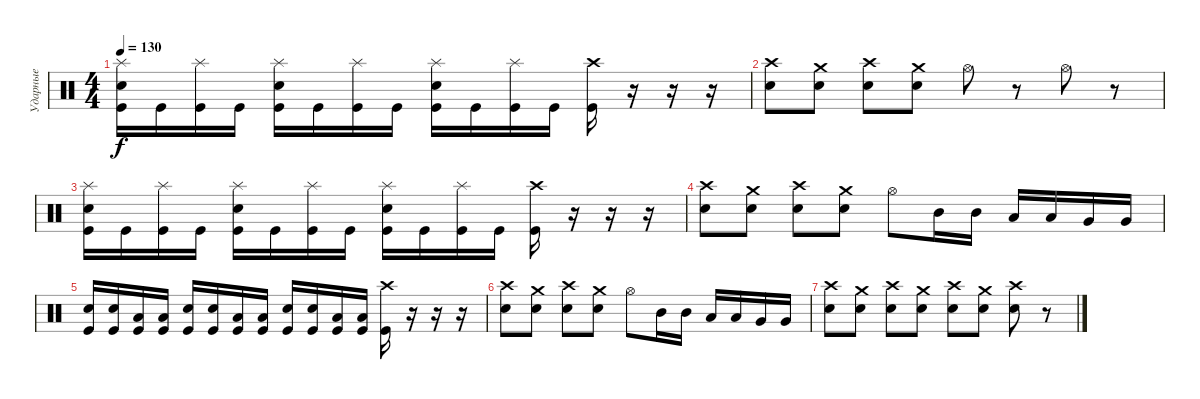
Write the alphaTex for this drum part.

\track ("Ударные" "Ударные") {instrument percussion}
\staff {score}
\articulation defaults
\ts (4 4)
\tempo 130
\clef neutral
\ks c
("Splash (hit)" "Electric Snare (hit)" "Kick (hit)").16{dy f} "Kick (hit)".16 ("Splash (hit)" "Kick (hit)").16 "Kick (hit)".16 ("Splash (hit)" "Electric Snare (hit)" "Kick (hit)").16 "Kick (hit)".16 ("Splash (hit)" "Kick (hit)").16 "Kick (hit)".16 ("Splash (hit)" "Electric Snare (hit)" "Kick (hit)").16 "Kick (hit)".16 ("Splash (hit)" "Kick (hit)").16 "Kick (hit)".16 ("Crash high (hit)" "Kick (hit)").16 r.16 r.16 r.16 |
("Electric Snare (hit)" "Crash high (hit)").8 ("Electric Snare (hit)" "Crash medium (hit)").8 ("Electric Snare (hit)" "Crash high (hit)").8 ("Electric Snare (hit)" "Crash medium (hit)").8 "Hi-Hat (open)".8 r.8 "Hi-Hat (open)".8 r.8 |
("Splash (hit)" "Electric Snare (hit)" "Kick (hit)").16 "Kick (hit)".16 ("Splash (hit)" "Kick (hit)").16 "Kick (hit)".16 ("Splash (hit)" "Electric Snare (hit)" "Kick (hit)").16 "Kick (hit)".16 ("Splash (hit)" "Kick (hit)").16 "Kick (hit)".16 ("Splash (hit)" "Electric Snare (hit)" "Kick (hit)").16 "Kick (hit)".16 ("Splash (hit)" "Kick (hit)").16 "Kick (hit)".16 ("Crash high (hit)" "Kick (hit)").16 r.16 r.16 r.16 |
("Electric Snare (hit)" "Crash high (hit)").8 ("Electric Snare (hit)" "Crash medium (hit)").8 ("Electric Snare (hit)" "Crash high (hit)").8 ("Electric Snare (hit)" "Crash medium (hit)").8 "Hi-Hat (open)".8 "Mid Tom (hit)".16 "Mid Tom (hit)".16 "Low Tom (hit)".16 "Low Tom (hit)".16 "Very Low Tom (hit)".16 "Very Low Tom (hit)".16 |
("Electric Snare (hit)" "Kick (hit)").16 ("Electric Snare (hit)" "Kick (hit)").16 ("Low Tom (hit)" "Kick (hit)").16 ("Low Tom (hit)" "Kick (hit)").16 ("Electric Snare (hit)" "Kick (hit)").16 ("Electric Snare (hit)" "Kick (hit)").16 ("Low Tom (hit)" "Kick (hit)").16 ("Low Tom (hit)" "Kick (hit)").16 ("Electric Snare (hit)" "Kick (hit)").16 ("Electric Snare (hit)" "Kick (hit)").16 ("Low Floor Tom (hit)" "Kick (hit)").16 ("Low Floor Tom (hit)" "Kick (hit)").16 ("Crash high (hit)" "Kick (hit)").16 r.16 r.16 r.16 |
("Electric Snare (hit)" "Crash high (hit)").8 ("Electric Snare (hit)" "Crash medium (hit)").8 ("Electric Snare (hit)" "Crash high (hit)").8 ("Electric Snare (hit)" "Crash medium (hit)").8 "Hi-Hat (open)".8 "Mid Tom (hit)".16 "Mid Tom (hit)".16 "Low Tom (hit)".16 "Low Tom (hit)".16 "Very Low Tom (hit)".16 "Very Low Tom (hit)".16 |
("Electric Snare (hit)" "Crash high (hit)").8 ("Electric Snare (hit)" "Crash medium (hit)").8 ("Electric Snare (hit)" "Crash high (hit)").8 ("Electric Snare (hit)" "Crash medium (hit)").8 ("Electric Snare (hit)" "Crash high (hit)").8 ("Electric Snare (hit)" "Crash medium (hit)").8 ("Electric Snare (hit)" "Crash high (hit)").8 r.8
